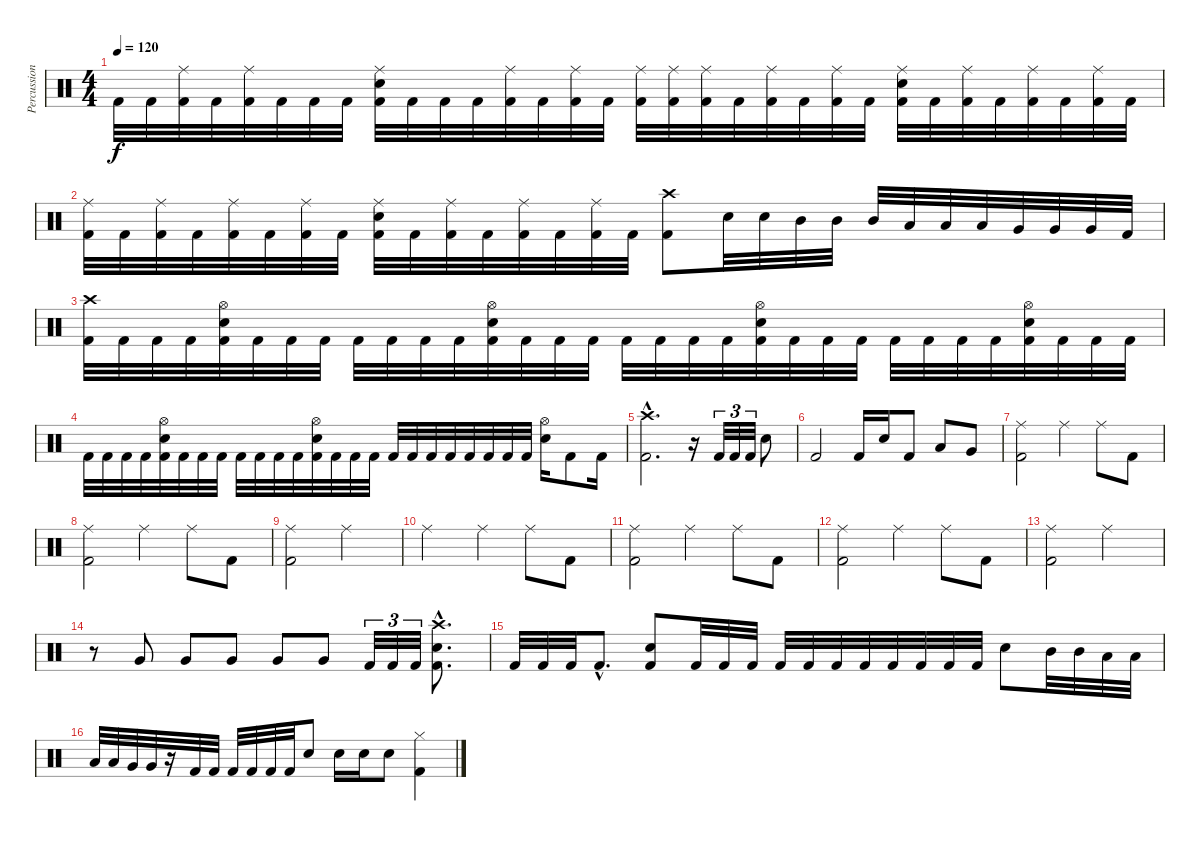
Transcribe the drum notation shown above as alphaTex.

\track ("Percussion" "Percussion") {instrument percussion}
\staff {score}
\articulation defaults
\ts (4 4)
\tempo 120
\clef neutral
\ks c "Kick (hit) 2".32{dy f} "Kick (hit) 2".32
("Ride (middle)" "Kick (hit) 2").32 "Kick (hit) 2".32 ("Ride (middle)" "Kick (hit) 2").32 "Kick (hit) 2".32 "Kick (hit) 2".32 "Kick (hit) 2".32 ("Ride (middle)" "Snare (hit) 2" "Kick (hit) 2").32 "Kick (hit) 2".32 "Kick (hit) 2".32 "Kick (hit) 2".32 ("Ride (middle)" "Kick (hit) 2").32 "Kick (hit) 2".32 ("Ride (middle)" "Kick (hit) 2").32 "Kick (hit) 2".32 ("Ride (middle)" "Kick (hit) 2").32 ("Ride (middle)" "Kick (hit) 2").32 ("Ride (middle)" "Kick (hit) 2").32 "Kick (hit) 2".32 ("Ride (middle)" "Kick (hit) 2").32 "Kick (hit) 2".32 ("Ride (middle)" "Kick (hit) 2").32 "Kick (hit) 2".32 ("Ride (middle)" "Snare (hit) 2" "Kick (hit) 2").32 "Kick (hit) 2".32 ("Ride (middle)" "Kick (hit) 2").32 "Kick (hit) 2".32 ("Ride (middle)" "Kick (hit) 2").32 "Kick (hit) 2".32 ("Ride (middle)" "Kick (hit) 2").32 "Kick (hit) 2".32 |
("Ride (middle)" "Kick (hit) 2").32 "Kick (hit) 2".32 ("Ride (middle)" "Kick (hit) 2").32 "Kick (hit) 2".32 ("Ride (middle)" "Kick (hit) 2").32 "Kick (hit) 2".32 ("Ride (middle)" "Kick (hit) 2").32 "Kick (hit) 2".32 ("Ride (middle)" "Snare (hit) 2" "Kick (hit) 2").32 "Kick (hit) 2".32 ("Ride (middle)" "Kick (hit) 2").32 "Kick (hit) 2".32 ("Ride (middle)" "Kick (hit) 2").32 "Kick (hit) 2".32 ("Ride (middle)" "Kick (hit) 2").32 "Kick (hit) 2".32 ("Crash high (hit)" "Kick (hit) 2").8 "Snare (hit) 2".32 "Snare (hit) 2".32 "Mid Tom (hit)".32 "Mid Tom (hit)".32 "Mid Tom (hit)".32 "Low Tom (hit)".32 "Low Tom (hit)".32 "Low Tom (hit)".32 "Very Low Tom (hit)".32 "Very Low Tom (hit)".32 "Very Low Tom (hit)".32 "Kick (hit) 2".32 |
("Crash high (hit)" "Kick (hit) 2").32 "Kick (hit) 2".32 "Kick (hit) 2".32 "Kick (hit) 2".32 ("Hi-Hat (open)" "Snare (hit) 2" "Kick (hit) 2").32 "Kick (hit) 2".32 "Kick (hit) 2".32 "Kick (hit) 2".32 "Kick (hit) 2".32 "Kick (hit) 2".32 "Kick (hit) 2".32 "Kick (hit) 2".32 ("Hi-Hat (open)" "Snare (hit) 2" "Kick (hit) 2").32 "Kick (hit) 2".32 "Kick (hit) 2".32 "Kick (hit) 2".32 "Kick (hit) 2".32 "Kick (hit) 2".32 "Kick (hit) 2".32 "Kick (hit) 2".32 ("Hi-Hat (open)" "Snare (hit) 2" "Kick (hit) 2").32 "Kick (hit) 2".32 "Kick (hit) 2".32 "Kick (hit) 2".32 "Kick (hit) 2".32 "Kick (hit) 2".32 "Kick (hit) 2".32 "Kick (hit) 2".32 ("Hi-Hat (open)" "Snare (hit) 2" "Kick (hit) 2").32 "Kick (hit) 2".32 "Kick (hit) 2".32 "Kick (hit) 2".32 |
"Kick (hit) 2".32 "Kick (hit) 2".32 "Kick (hit) 2".32 "Kick (hit) 2".32 ("Hi-Hat (open)" "Snare (hit) 2" "Kick (hit) 2").32 "Kick (hit) 2".32 "Kick (hit) 2".32 "Kick (hit) 2".32 "Kick (hit) 2".32 "Kick (hit) 2".32 "Kick (hit) 2".32 "Kick (hit) 2".32 ("Hi-Hat (open)" "Snare (hit) 2" "Kick (hit) 2").32 "Kick (hit) 2".32 "Kick (hit) 2".32 "Kick (hit) 2".32 "Kick (hit) 2".32 "Kick (hit) 2".32 "Kick (hit) 2".32 "Kick (hit) 2".32 "Kick (hit) 2".32 "Kick (hit) 2".32 "Kick (hit) 2".32 "Kick (hit) 2".32 ("Hi-Hat (open)" "Snare (hit) 2").16 "Kick (hit) 2".8 "Kick (hit) 2".16 |
("Crash high (hit)"{hac} "Kick (hit) 2"{hac}).2{d} r.16 "Kick (hit) 2".32{tu (3 2)} "Kick (hit) 2".32{tu (3 2)} "Kick (hit) 2".32{tu (3 2)} "Snare (hit) 2".8 |
"Kick (hit) 2".2 "Kick (hit) 2".16 "Snare (hit) 2".16 "Kick (hit) 2".8 "Low Tom (hit)".8 "Very Low Tom (hit)".8 |
("Ride (middle)" "Kick (hit) 2").2 "Ride (middle)".4 "Ride (middle)".8 "Kick (hit) 2".8 |
("Ride (middle)" "Kick (hit) 2").2 "Ride (middle)".4 "Ride (middle)".8 "Kick (hit) 2".8 |
("Ride (middle)" "Kick (hit) 2").2 "Ride (middle)".2 |
"Ride (middle)".2 "Ride (middle)".4 "Ride (middle)".8 "Kick (hit) 2".8 |
("Ride (middle)" "Kick (hit) 2").2 "Ride (middle)".4 "Ride (middle)".8 "Kick (hit) 2".8 |
("Ride (middle)" "Kick (hit) 2").2 "Ride (middle)".4 "Ride (middle)".8 "Kick (hit) 2".8 |
("Ride (middle)" "Kick (hit) 2").2 "Ride (middle)".2 |
r.8 "Very Low Tom (hit)".8 "Very Low Tom (hit)".8 "Very Low Tom (hit)".8 "Very Low Tom (hit)".8 "Very Low Tom (hit)".8 "Kick (hit) 2".32{tu (3 2)} "Kick (hit) 2".32{tu (3 2)} "Kick (hit) 2".32{tu (3 2)} ("Crash high (hit)"{hac} "Snare (hit) 2"{hac} "Kick (hit) 2"{hac}).8{d} |
"Kick (hit) 2".32 "Kick (hit) 2".32 "Kick (hit) 2".32 "Kick (hit) 2"{hac}.8{d} ("Snare (hit) 2" "Kick (hit) 2").8 "Kick (hit) 2".32 "Kick (hit) 2".32 "Kick (hit) 2".32 "Kick (hit) 2".32 "Kick (hit) 2".32 "Kick (hit) 2".32 "Kick (hit) 2".32 "Kick (hit) 2".32 "Kick (hit) 2".32 "Kick (hit) 2".32 "Kick (hit) 2".32 "Snare (hit) 2".8 "Mid Tom (hit)".32 "Mid Tom (hit)".32 "Low Tom (hit)".32 "Low Tom (hit)".32 |
"Low Tom (hit)".32 "Low Tom (hit)".32 "Very Low Tom (hit)".32 "Very Low Tom (hit)".32 r.16 "Kick (hit) 2".32 "Kick (hit) 2".32 "Kick (hit) 2".32 "Kick (hit) 2".32 "Kick (hit) 2".32 "Kick (hit) 2".32 "Snare (hit) 2".8 "Snare (hit) 2".16 "Snare (hit) 2".16 "Snare (hit) 2".8 ("Hi-Hat (closed)" "Kick (hit) 2").4
